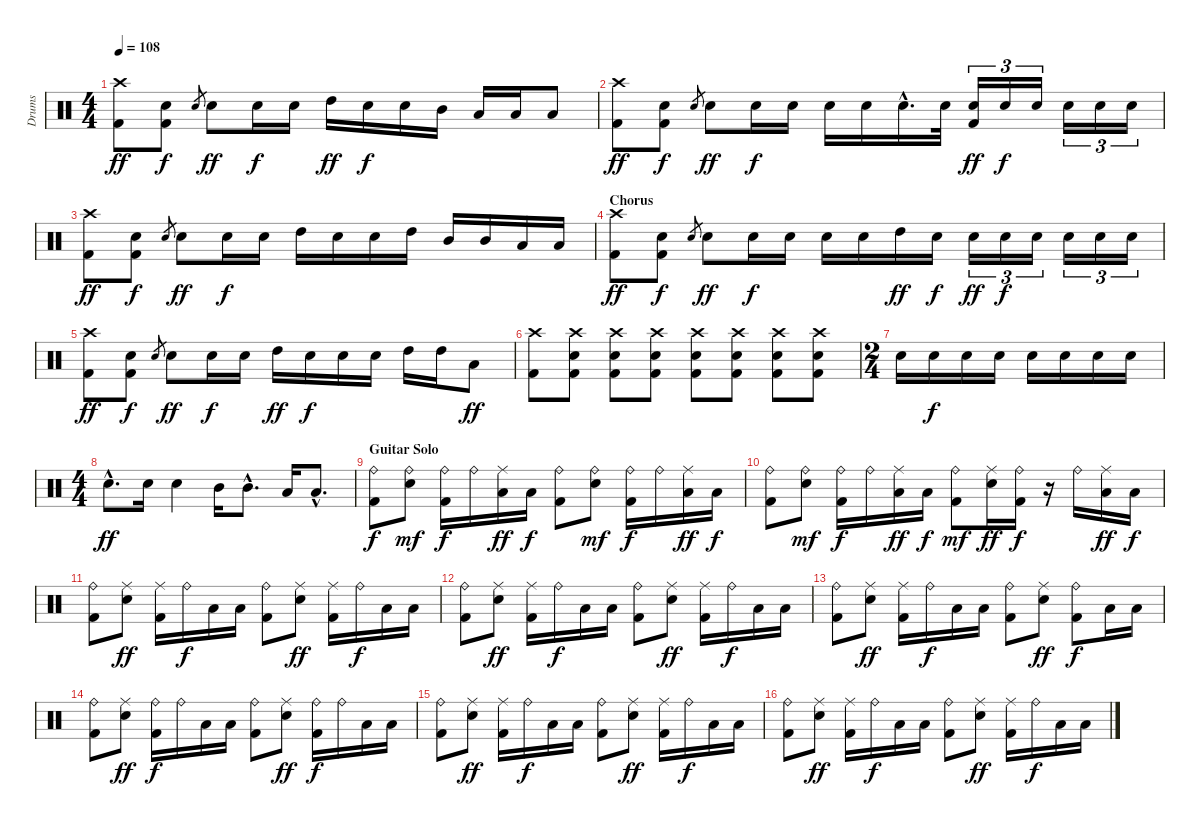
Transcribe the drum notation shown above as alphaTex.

\track ("Drums" "Drums") {instrument percussion}
\staff {score}
\articulation defaults
\ts (4 4)
\tempo 108
\clef neutral
\ks c
("Crash high (hit)" "Kick (hit) 2").8{dy ff} ("Electric Snare (hit)" "Kick (hit) 2").8{dy f} "Electric Snare (hit)".8{gr} "Electric Snare (hit)".8{dy ff} "Electric Snare (hit)".16{dy f} "Electric Snare (hit)".16 "High Tom (hit)".16{dy ff} "Electric Snare (hit)".16{dy f} "Electric Snare (hit)".16 "Mid Tom (hit)".16 "Low Tom (hit)".16 "Low Tom (hit)".16 "Low Tom (hit)".8 |
("Crash high (hit)" "Kick (hit) 2").8{dy ff} ("Electric Snare (hit)" "Kick (hit) 2").8{dy f} "Electric Snare (hit)".8{gr} "Electric Snare (hit)".8{dy ff} "Electric Snare (hit)".16{dy f} "Electric Snare (hit)".16 "Electric Snare (hit)".16 "Electric Snare (hit)".16 "Electric Snare (hit)"{hac}.16{d} "Electric Snare (hit)".32 ("Electric Snare (hit)" "Kick (hit) 2").16{tu (3 2) dy ff} "Electric Snare (hit)".16{tu (3 2) dy f} "Electric Snare (hit)".16{tu (3 2)} "Electric Snare (hit)".16{tu (3 2)} "Electric Snare (hit)".16{tu (3 2)} "Electric Snare (hit)".16{tu (3 2)} |
("Crash high (hit)" "Kick (hit) 2").8{dy ff} ("Electric Snare (hit)" "Kick (hit) 2").8{dy f} "Electric Snare (hit)".8{gr} "Electric Snare (hit)".8{dy ff} "Electric Snare (hit)".16{dy f} "Electric Snare (hit)".16 "High Tom (hit)".16 "Electric Snare (hit)".16 "Electric Snare (hit)".16 "High Tom (hit)".16 "Mid Tom (hit)".16 "Mid Tom (hit)".16 "Low Tom (hit)".16 "Low Tom (hit)".16 |
\section ("" "Chorus")
("Crash high (hit)" "Kick (hit) 2").8{dy ff} ("Electric Snare (hit)" "Kick (hit) 2").8{dy f} "Electric Snare (hit)".8{gr} "Electric Snare (hit)".8{dy ff} "Electric Snare (hit)".16{dy f} "Electric Snare (hit)".16 "Electric Snare (hit)".16 "Electric Snare (hit)".16 "High Tom (hit)".16{dy ff} "Electric Snare (hit)".16{dy f} "Electric Snare (hit)".16{tu (3 2) dy ff} "Electric Snare (hit)".16{tu (3 2) dy f} "Electric Snare (hit)".16{tu (3 2)} "Electric Snare (hit)".16{tu (3 2)} "Electric Snare (hit)".16{tu (3 2)} "Electric Snare (hit)".16{tu (3 2)} |
("Crash high (hit)" "Kick (hit) 2").8{dy ff} ("Electric Snare (hit)" "Kick (hit) 2").8{dy f} "Electric Snare (hit)".8{gr} "Electric Snare (hit)".8{dy ff} "Electric Snare (hit)".16{dy f} "Electric Snare (hit)".16 "High Tom (hit)".16{dy ff} "Electric Snare (hit)".16{dy f} "Electric Snare (hit)".16 "Electric Snare (hit)".16 "High Tom (hit)".16 "High Tom (hit)".16 "Low Tom (hit)".8{dy ff} |
("Crash high (hit)" "Kick (hit) 2").8 ("Crash high (hit)" "Electric Snare (hit)" "Kick (hit) 2").8 ("Crash high (hit)" "Electric Snare (hit)" "Kick (hit) 2").8 ("Crash high (hit)" "Electric Snare (hit)" "Kick (hit) 2").8 ("Crash high (hit)" "Electric Snare (hit)" "Kick (hit) 2").8 ("Crash high (hit)" "Electric Snare (hit)" "Kick (hit) 2").8 ("Crash high (hit)" "Electric Snare (hit)" "Kick (hit) 2").8 ("Crash high (hit)" "Electric Snare (hit)" "Kick (hit) 2").8 |
\ts (2 4)
"Electric Snare (hit)".16 "Electric Snare (hit)".16{dy f} "Electric Snare (hit)".16 "Electric Snare (hit)".16 "Electric Snare (hit)".16 "Electric Snare (hit)".16 "Electric Snare (hit)".16 "Electric Snare (hit)".16 |
\ts (4 4)
"Electric Snare (hit)"{hac}.8{d dy ff} "Electric Snare (hit)".16 "Electric Snare (hit)".4 "Mid Tom (hit)".16 "Mid Tom (hit)"{hac}.8{d} "Low Tom (hit)".16 "Low Tom (hit)"{hac}.8{d} |
\section ("" "Guitar Solo")
("Ride (bell)" "Kick (hit) 2").8{dy f} ("Ride (bell)" "Electric Snare (hit)").8{dy mf} ("Ride (bell)" "Kick (hit) 2").16{dy f} "Ride (bell)".16 ("Ride (middle)" "Low Tom (hit)").16{dy ff} "Low Tom (hit)".16{dy f} ("Ride (bell)" "Kick (hit) 2").8 ("Ride (bell)" "Electric Snare (hit)").8{dy mf} ("Ride (bell)" "Kick (hit) 2").16{dy f} "Ride (bell)".16 ("Ride (middle)" "Low Tom (hit)").16{dy ff} "Low Tom (hit)".16{dy f} |
("Ride (bell)" "Kick (hit) 2").8 ("Ride (bell)" "Electric Snare (hit)").8{dy mf} ("Ride (bell)" "Kick (hit) 2").16{dy f} "Ride (bell)".16 ("Ride (middle)" "Low Tom (hit)").16{dy ff} "Low Tom (hit)".16{dy f} ("Ride (bell)" "Kick (hit) 2").8{dy mf} ("Ride (middle)" "Electric Snare (hit)").16{dy ff} ("Ride (bell)" "Kick (hit) 2").16{dy f} r.16 "Ride (bell)".16 ("Ride (middle)" "Low Tom (hit)").16{dy ff} "Low Tom (hit)".16{dy f} |
("Ride (bell)" "Kick (hit) 2").8 ("Ride (middle)" "Electric Snare (hit)").8{dy ff} ("Ride (middle)" "Kick (hit) 2").16 "Ride (bell)".16{dy f} "Low Tom (hit)".16 "Low Tom (hit)".16 ("Ride (bell)" "Kick (hit) 2").8 ("Ride (middle)" "Electric Snare (hit)").8{dy ff} ("Ride (middle)" "Kick (hit) 2").16 "Ride (bell)".16{dy f} "Low Tom (hit)".16 "Low Tom (hit)".16 |
("Ride (bell)" "Kick (hit) 2").8 ("Ride (middle)" "Electric Snare (hit)").8{dy ff} ("Ride (middle)" "Kick (hit) 2").16 "Ride (bell)".16{dy f} "Low Tom (hit)".16 "Low Tom (hit)".16 ("Ride (bell)" "Kick (hit) 2").8 ("Ride (middle)" "Electric Snare (hit)").8{dy ff} ("Ride (middle)" "Kick (hit) 2").16 "Ride (bell)".16{dy f} "Low Tom (hit)".16 "Low Tom (hit)".16 |
("Ride (bell)" "Kick (hit) 2").8 ("Ride (middle)" "Electric Snare (hit)").8{dy ff} ("Ride (middle)" "Kick (hit) 2").16 "Ride (bell)".16{dy f} "Low Tom (hit)".16 "Low Tom (hit)".16 ("Ride (bell)" "Kick (hit) 2").8 ("Ride (middle)" "Electric Snare (hit)").8{dy ff} ("Ride (bell)" "Kick (hit) 2").8{dy f} "Low Tom (hit)".16 "Low Tom (hit)".16 |
("Ride (bell)" "Kick (hit) 2").8 ("Ride (middle)" "Electric Snare (hit)").8{dy ff} ("Ride (bell)" "Kick (hit) 2").16{dy f} "Ride (bell)".16 "Low Tom (hit)".16 "Low Tom (hit)".16 ("Ride (bell)" "Kick (hit) 2").8 ("Ride (middle)" "Electric Snare (hit)").8{dy ff} ("Ride (bell)" "Kick (hit) 2").16{dy f} "Ride (bell)".16 "Low Tom (hit)".16 "Low Tom (hit)".16 |
("Ride (bell)" "Kick (hit) 2").8 ("Ride (middle)" "Electric Snare (hit)").8{dy ff} ("Ride (middle)" "Kick (hit) 2").16 "Ride (bell)".16{dy f} "Low Tom (hit)".16 "Low Tom (hit)".16 ("Ride (bell)" "Kick (hit) 2").8 ("Ride (middle)" "Electric Snare (hit)").8{dy ff} ("Ride (middle)" "Kick (hit) 2").16 "Ride (bell)".16{dy f} "Low Tom (hit)".16 "Low Tom (hit)".16 |
("Ride (bell)" "Kick (hit) 2").8 ("Ride (middle)" "Electric Snare (hit)").8{dy ff} ("Ride (middle)" "Kick (hit) 2").16 "Ride (bell)".16{dy f} "Low Tom (hit)".16 "Low Tom (hit)".16 ("Ride (bell)" "Kick (hit) 2").8 ("Ride (middle)" "Electric Snare (hit)").8{dy ff} ("Ride (middle)" "Kick (hit) 2").16 "Ride (bell)".16{dy f} "Low Tom (hit)".16 "Low Tom (hit)".16
